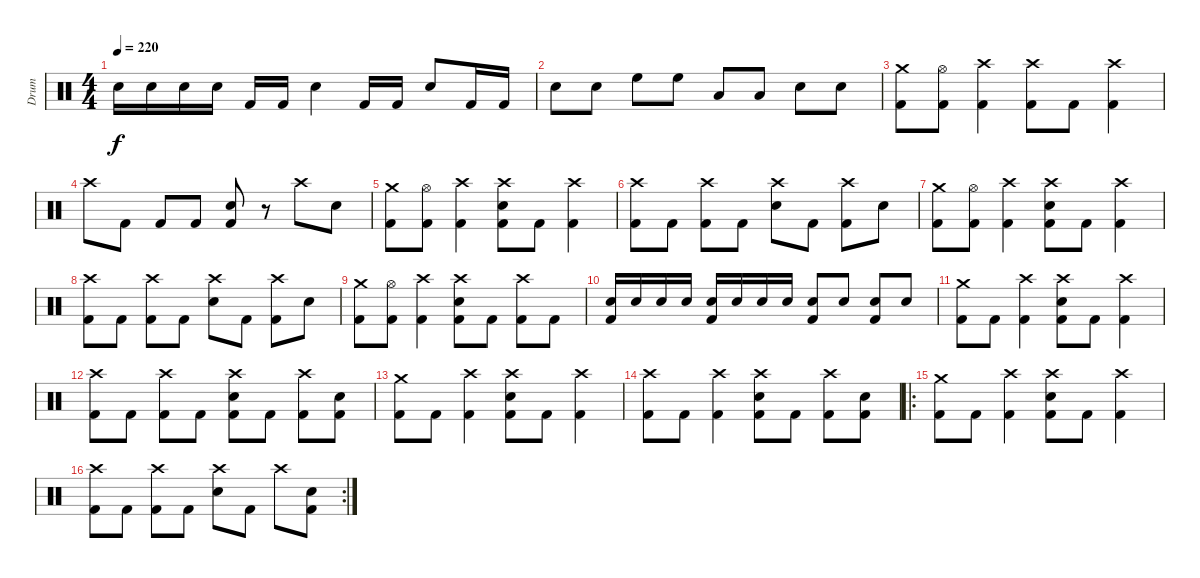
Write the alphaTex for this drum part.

\track ("Drum" "Drum") {instrument percussion}
\staff {score}
\articulation defaults
\ts (4 4)
\tempo 220
\clef neutral
\ks c "Electric Snare (hit)".16{dy f} "Electric Snare (hit)".16 "Electric Snare (hit)".16 "Electric Snare (hit)".16 "Kick (hit) 2".16 "Kick (hit) 2".16 "Electric Snare (hit)".4 "Kick (hit) 2".16 "Kick (hit) 2".16 "Electric Snare (hit)".8 "Kick (hit) 2".16 "Kick (hit) 2".16
|
"Electric Snare (hit)".8 "Electric Snare (hit)".8 "High Floor Tom (hit)".8 "High Floor Tom (hit)".8 "Low Floor Tom (hit)".8 "Low Floor Tom (hit)".8 "Electric Snare (hit)".8 "Electric Snare (hit)".8 |
("Crash medium (hit)" "Kick (hit) 2").8 ("Hi-Hat (open)" "Kick (hit) 2").8 ("Crash high (hit)" "Kick (hit) 2").4 ("Crash high (hit)" "Kick (hit) 2").8 "Kick (hit) 2".8 ("Crash high (hit)" "Kick (hit) 2").4 |
"Crash high (hit)".8 "Kick (hit) 2".8 "Kick (hit) 2".8 "Kick (hit) 2".8 ("Electric Snare (hit)" "Kick (hit) 2").8 r.8 "Crash high (hit)".8 "Electric Snare (hit)".8 |
("Crash medium (hit)" "Kick (hit) 2").8 ("Hi-Hat (open)" "Kick (hit) 2").8 ("Crash high (hit)" "Kick (hit) 2").4 ("Crash high (hit)" "Electric Snare (hit)" "Kick (hit) 2").8 "Kick (hit) 2".8 ("Crash high (hit)" "Kick (hit) 2").4 |
("Crash high (hit)" "Kick (hit) 2").8 "Kick (hit) 2".8 ("Crash high (hit)" "Kick (hit) 2").8 "Kick (hit) 2".8 ("Crash high (hit)" "Electric Snare (hit)").8 "Kick (hit) 2".8 ("Crash high (hit)" "Kick (hit) 2").8 "Electric Snare (hit)".8 |
("Crash medium (hit)" "Kick (hit) 2").8 ("Hi-Hat (open)" "Kick (hit) 2").8 ("Crash high (hit)" "Kick (hit) 2").4 ("Crash high (hit)" "Electric Snare (hit)" "Kick (hit) 2").8 "Kick (hit) 2".8 ("Crash high (hit)" "Kick (hit) 2").4 |
("Crash high (hit)" "Kick (hit) 2").8 "Kick (hit) 2".8 ("Crash high (hit)" "Kick (hit) 2").8 "Kick (hit) 2".8 ("Crash high (hit)" "Electric Snare (hit)").8 "Kick (hit) 2".8 ("Crash high (hit)" "Kick (hit) 2").8 "Electric Snare (hit)".8 |
("Crash medium (hit)" "Kick (hit) 2").8 ("Hi-Hat (open)" "Kick (hit) 2").8 ("Crash high (hit)" "Kick (hit) 2").4 ("Crash high (hit)" "Electric Snare (hit)" "Kick (hit) 2").8 "Kick (hit) 2".8 ("Crash high (hit)" "Kick (hit) 2").8 "Kick (hit) 2".8 |
("Electric Snare (hit)" "Kick (hit) 2").16 "Electric Snare (hit)".16 "Electric Snare (hit)".16 "Electric Snare (hit)".16 ("Electric Snare (hit)" "Kick (hit) 2").16 "Electric Snare (hit)".16 "Electric Snare (hit)".16 "Electric Snare (hit)".16 ("Electric Snare (hit)" "Kick (hit) 2").8 "Electric Snare (hit)".8 ("Electric Snare (hit)" "Kick (hit) 2").8 "Electric Snare (hit)".8 |
("Crash medium (hit)" "Kick (hit) 2").8 "Kick (hit) 2".8 ("Crash high (hit)" "Kick (hit) 2").4 ("Crash high (hit)" "Electric Snare (hit)" "Kick (hit) 2").8 "Kick (hit) 2".8 ("Crash high (hit)" "Kick (hit) 2").4 |
("Crash high (hit)" "Kick (hit) 2").8 "Kick (hit) 2".8 ("Crash high (hit)" "Kick (hit) 2").8 "Kick (hit) 2".8 ("Crash high (hit)" "Electric Snare (hit)" "Kick (hit) 2").8 "Kick (hit) 2".8 ("Crash high (hit)" "Kick (hit) 2").8 ("Electric Snare (hit)" "Kick (hit) 2").8 |
("Crash medium (hit)" "Kick (hit) 2").8 "Kick (hit) 2".8 ("Crash high (hit)" "Kick (hit) 2").4 ("Crash high (hit)" "Electric Snare (hit)" "Kick (hit) 2").8 "Kick (hit) 2".8 ("Crash high (hit)" "Kick (hit) 2").4 |
("Crash high (hit)" "Kick (hit) 2").8 "Kick (hit) 2".8 ("Crash high (hit)" "Kick (hit) 2").4 ("Crash high (hit)" "Electric Snare (hit)" "Kick (hit) 2").8 "Kick (hit) 2".8 ("Crash high (hit)" "Kick (hit) 2").8 ("Electric Snare (hit)" "Kick (hit) 2").8 |
\ro
("Crash medium (hit)" "Kick (hit) 2").8 "Kick (hit) 2".8 ("Crash high (hit)" "Kick (hit) 2").4 ("Crash high (hit)" "Electric Snare (hit)" "Kick (hit) 2").8 "Kick (hit) 2".8 ("Crash high (hit)" "Kick (hit) 2").4 |
\rc 2
("Crash high (hit)" "Kick (hit) 2").8 "Kick (hit) 2".8 ("Crash high (hit)" "Kick (hit) 2").8 "Kick (hit) 2".8 ("Crash high (hit)" "Electric Snare (hit)").8 "Kick (hit) 2".8 "Crash high (hit)".8 ("Electric Snare (hit)" "Kick (hit) 2").8
